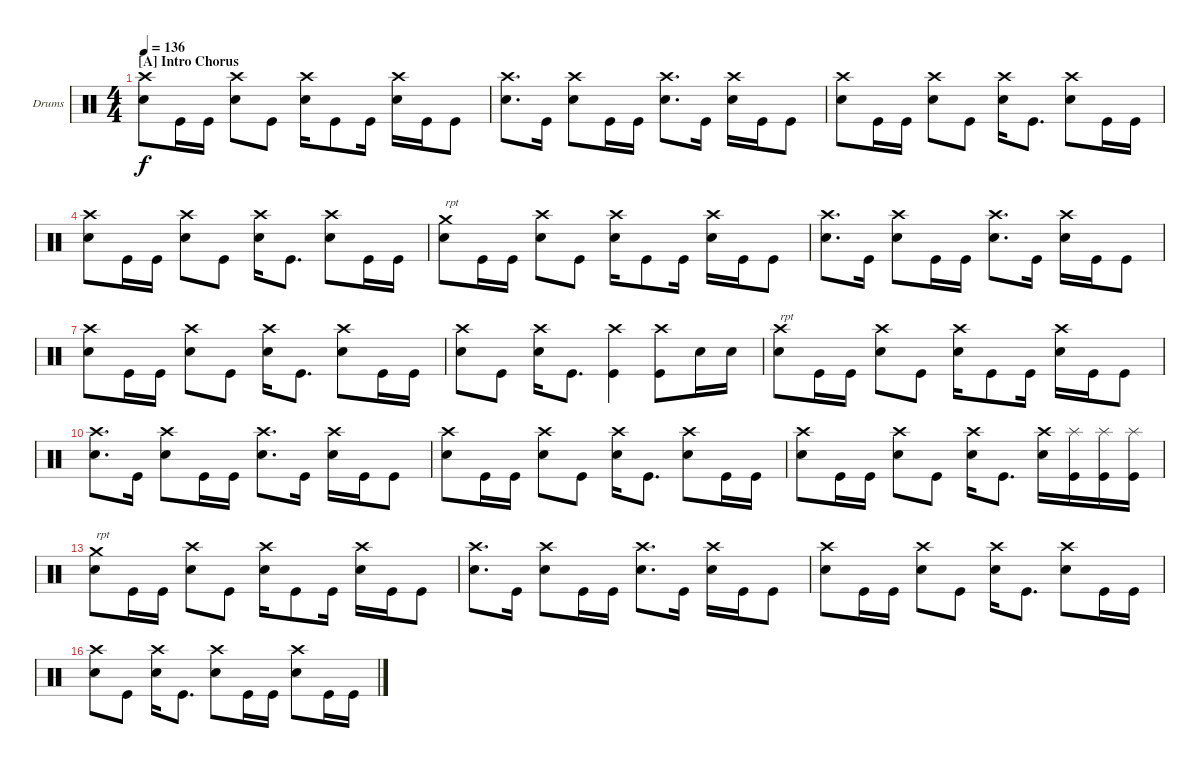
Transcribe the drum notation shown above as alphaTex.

\defaultSystemsLayout 4
\bracketExtendMode groupsimilarinstruments
\firstSystemTrackNameOrientation horizontal
\otherSystemsTrackNameOrientation horizontal
\defaultBarNumberDisplay FirstOfSystem
\track ("Drumkit" "Drums") {multiBarRest instrument percussion}
\staff {score}
\articulation defaults
\ts (4 4)
\section ("A" "Intro Chorus")
\ac
\tempo 136
\clef neutral
\ks c
("Crash high (hit)" "Snare (hit) 2").8{dy f} "Kick (hit)".16 "Kick (hit)".16 ("Crash high (hit)" "Snare (hit) 2").8 "Kick (hit)".8 ("Crash high (hit)" "Snare (hit) 2").16 "Kick (hit)".8 "Kick (hit)".16 ("Crash high (hit)" "Snare (hit) 2").16 "Kick (hit)".16 "Kick (hit)".8 |
("Snare (hit) 2" "Crash high (hit)").8{d} "Kick (hit)".16 ("Snare (hit) 2" "Crash high (hit)").8 "Kick (hit)".16 "Kick (hit)".16 ("Snare (hit) 2" "Crash high (hit)").8{d} "Kick (hit)".16 ("Snare (hit) 2" "Crash high (hit)").16 "Kick (hit)".16 "Kick (hit)".8 |
("Crash high (hit)" "Snare (hit) 2").8 "Kick (hit)".16 "Kick (hit)".16 ("Crash high (hit)" "Snare (hit) 2").8 "Kick (hit)".8 ("Crash high (hit)" "Snare (hit) 2").16 "Kick (hit)".8{d} ("Crash high (hit)" "Snare (hit) 2").8 "Kick (hit)".16 "Kick (hit)".16 |
("Crash high (hit)" "Snare (hit) 2").8 "Kick (hit)".16 "Kick (hit)".16 ("Crash high (hit)" "Snare (hit) 2").8 "Kick (hit)".8 ("Crash high (hit)" "Snare (hit) 2").16 "Kick (hit)".8{d} ("Crash high (hit)" "Snare (hit) 2").8 "Kick (hit)".16 "Kick (hit)".16 |
("Crash medium (hit)" "Snare (hit) 2").8{txt "rpt"} "Kick (hit)".16 "Kick (hit)".16 ("Crash high (hit)" "Snare (hit) 2").8 "Kick (hit)".8 ("Crash high (hit)" "Snare (hit) 2").16 "Kick (hit)".8 "Kick (hit)".16 ("Crash high (hit)" "Snare (hit) 2").16 "Kick (hit)".16 "Kick (hit)".8 |
("Snare (hit) 2" "Crash high (hit)").8{d} "Kick (hit)".16 ("Snare (hit) 2" "Crash high (hit)").8 "Kick (hit)".16 "Kick (hit)".16 ("Snare (hit) 2" "Crash high (hit)").8{d} "Kick (hit)".16 ("Snare (hit) 2" "Crash high (hit)").16 "Kick (hit)".16 "Kick (hit)".8 |
("Crash high (hit)" "Snare (hit) 2").8 "Kick (hit)".16 "Kick (hit)".16 ("Crash high (hit)" "Snare (hit) 2").8 "Kick (hit)".8 ("Crash high (hit)" "Snare (hit) 2").16 "Kick (hit)".8{d} ("Crash high (hit)" "Snare (hit) 2").8 "Kick (hit)".16 "Kick (hit)".16 |
("Snare (hit) 2" "Crash high (hit)").8 "Kick (hit)".8 ("Snare (hit) 2" "Crash high (hit)").16 "Kick (hit)".8{d} ("Crash high (hit)" "Kick (hit)").4 ("Kick (hit)" "Crash high (hit)").8 "Snare (hit) 2".16 "Snare (hit) 2".16 |
("Crash high (hit)" "Snare (hit) 2").8{txt "rpt"} "Kick (hit)".16 "Kick (hit)".16 ("Crash high (hit)" "Snare (hit) 2").8 "Kick (hit)".8 ("Crash high (hit)" "Snare (hit) 2").16 "Kick (hit)".8 "Kick (hit)".16 ("Crash high (hit)" "Snare (hit) 2").16 "Kick (hit)".16 "Kick (hit)".8 |
("Snare (hit) 2" "Crash high (hit)").8{d} "Kick (hit)".16 ("Snare (hit) 2" "Crash high (hit)").8 "Kick (hit)".16 "Kick (hit)".16 ("Snare (hit) 2" "Crash high (hit)").8{d} "Kick (hit)".16 ("Snare (hit) 2" "Crash high (hit)").16 "Kick (hit)".16 "Kick (hit)".8 |
("Crash high (hit)" "Snare (hit) 2").8 "Kick (hit)".16 "Kick (hit)".16 ("Crash high (hit)" "Snare (hit) 2").8 "Kick (hit)".8 ("Crash high (hit)" "Snare (hit) 2").16 "Kick (hit)".8{d} ("Crash high (hit)" "Snare (hit) 2").8 "Kick (hit)".16 "Kick (hit)".16 |
("Crash high (hit)" "Snare (hit) 2").8 "Kick (hit)".16 "Kick (hit)".16 ("Crash high (hit)" "Snare (hit) 2").8 "Kick (hit)".8 ("Crash high (hit)" "Snare (hit) 2").16 "Kick (hit)".8{d} ("Crash high (hit)" "Snare (hit) 2").16 ("Splash (hit)" "Kick (hit)").16 ("Kick (hit)" "Splash (hit)").16 ("Kick (hit)" "Splash (hit)").16 |
("Crash medium (hit)" "Snare (hit) 2").8{txt "rpt"} "Kick (hit)".16 "Kick (hit)".16 ("Crash high (hit)" "Snare (hit) 2").8 "Kick (hit)".8 ("Crash high (hit)" "Snare (hit) 2").16 "Kick (hit)".8 "Kick (hit)".16 ("Crash high (hit)" "Snare (hit) 2").16 "Kick (hit)".16 "Kick (hit)".8 |
("Snare (hit) 2" "Crash high (hit)").8{d} "Kick (hit)".16 ("Snare (hit) 2" "Crash high (hit)").8 "Kick (hit)".16 "Kick (hit)".16 ("Snare (hit) 2" "Crash high (hit)").8{d} "Kick (hit)".16 ("Snare (hit) 2" "Crash high (hit)").16 "Kick (hit)".16 "Kick (hit)".8 |
("Crash high (hit)" "Snare (hit) 2").8 "Kick (hit)".16 "Kick (hit)".16 ("Crash high (hit)" "Snare (hit) 2").8 "Kick (hit)".8 ("Crash high (hit)" "Snare (hit) 2").16 "Kick (hit)".8{d} ("Crash high (hit)" "Snare (hit) 2").8 "Kick (hit)".16 "Kick (hit)".16 |
("Snare (hit) 2" "Crash high (hit)").8 "Kick (hit)".8 ("Snare (hit) 2" "Crash high (hit)").16 "Kick (hit)".8{d} ("Crash high (hit)" "Snare (hit) 2").8 "Kick (hit)".16 "Kick (hit)".16 ("Crash high (hit)" "Snare (hit) 2").8 "Kick (hit)".16 "Kick (hit)".16
